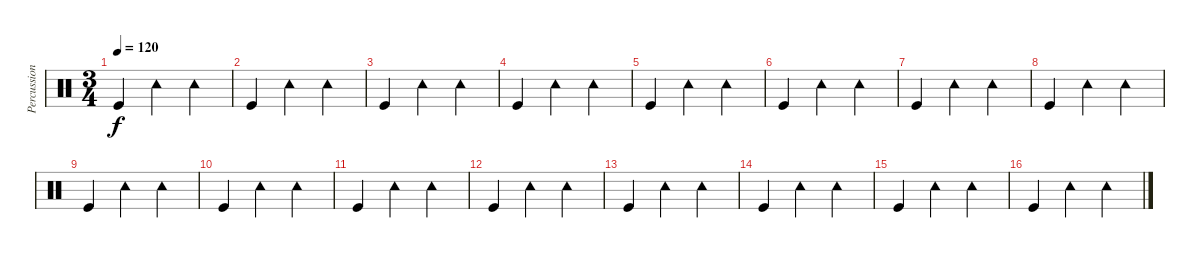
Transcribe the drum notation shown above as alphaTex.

\track ("Percussion" "Percussion") {instrument percussion}
\staff {score}
\articulation defaults
\ts (3 4)
\tempo 120
\clef neutral
\ks c "Kick (hit)".4{dy f} "Tambourine (hit)".4 "Tambourine (hit)".4
|
"Kick (hit)".4 "Tambourine (hit)".4 "Tambourine (hit)".4 |
"Kick (hit)".4 "Tambourine (hit)".4 "Tambourine (hit)".4 |
"Kick (hit)".4 "Tambourine (hit)".4 "Tambourine (hit)".4 |
"Kick (hit)".4 "Tambourine (hit)".4 "Tambourine (hit)".4 |
"Kick (hit)".4 "Tambourine (hit)".4 "Tambourine (hit)".4 |
"Kick (hit)".4 "Tambourine (hit)".4 "Tambourine (hit)".4 |
"Kick (hit)".4 "Tambourine (hit)".4 "Tambourine (hit)".4 |
"Kick (hit)".4 "Tambourine (hit)".4 "Tambourine (hit)".4 |
"Kick (hit)".4 "Tambourine (hit)".4 "Tambourine (hit)".4 |
"Kick (hit)".4 "Tambourine (hit)".4 "Tambourine (hit)".4 |
"Kick (hit)".4 "Tambourine (hit)".4 "Tambourine (hit)".4 |
"Kick (hit)".4 "Tambourine (hit)".4 "Tambourine (hit)".4 |
"Kick (hit)".4 "Tambourine (hit)".4 "Tambourine (hit)".4 |
"Kick (hit)".4 "Tambourine (hit)".4 "Tambourine (hit)".4 |
"Kick (hit)".4 "Tambourine (hit)".4 "Tambourine (hit)".4
